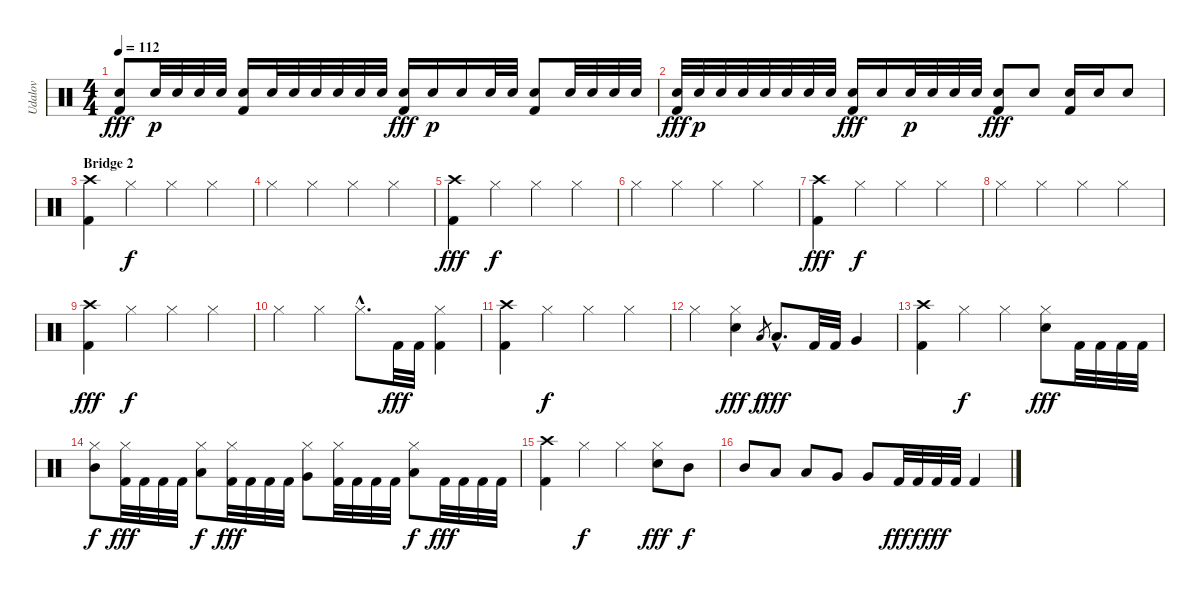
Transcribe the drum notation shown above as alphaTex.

\track ("Udalov" "Udalov") {instrument percussion}
\staff {score}
\articulation defaults
\ts (4 4)
\tempo 112
\clef neutral
\ks c
("Electric Snare (hit)" "Kick (hit) 2").8{dy fff} "Electric Snare (hit)".32{dy p} "Electric Snare (hit)".32 "Electric Snare (hit)".32 "Electric Snare (hit)".32 ("Electric Snare (hit)" "Kick (hit) 2").16 "Electric Snare (hit)".32 "Electric Snare (hit)".32 "Electric Snare (hit)".32 "Electric Snare (hit)".32 "Electric Snare (hit)".32 "Electric Snare (hit)".32 ("Electric Snare (hit)" "Kick (hit) 2").16{dy fff} "Electric Snare (hit)".16{dy p} "Electric Snare (hit)".16 "Electric Snare (hit)".32 "Electric Snare (hit)".32 ("Electric Snare (hit)" "Kick (hit) 2").8 "Electric Snare (hit)".32 "Electric Snare (hit)".32 "Electric Snare (hit)".32 "Electric Snare (hit)".32 |
("Electric Snare (hit)" "Kick (hit) 2").32{dy fff} "Electric Snare (hit)".32{dy p} "Electric Snare (hit)".32 "Electric Snare (hit)".32 "Electric Snare (hit)".32 "Electric Snare (hit)".32 "Electric Snare (hit)".32 "Electric Snare (hit)".32 ("Electric Snare (hit)" "Kick (hit) 2").16{dy fff} "Electric Snare (hit)".16 "Electric Snare (hit)".32{dy p} "Electric Snare (hit)".32 "Electric Snare (hit)".32 "Electric Snare (hit)".32 ("Electric Snare (hit)" "Kick (hit) 2").8{dy fff} "Electric Snare (hit)".8 ("Electric Snare (hit)" "Kick (hit) 2").16 "Electric Snare (hit)".16 "Electric Snare (hit)".8 |
\section ("" "Bridge 2")
("Crash high (hit)" "Kick (hit) 2").4 "Hi-Hat (closed)".4{dy f} "Hi-Hat (closed)".4 "Hi-Hat (closed)".4 |
"Hi-Hat (closed)".4 "Hi-Hat (closed)".4 "Hi-Hat (closed)".4 "Hi-Hat (closed)".4 |
("Crash high (hit)" "Kick (hit) 2").4{dy fff} "Hi-Hat (closed)".4{dy f} "Hi-Hat (closed)".4 "Hi-Hat (closed)".4 |
"Hi-Hat (closed)".4 "Hi-Hat (closed)".4 "Hi-Hat (closed)".4 "Hi-Hat (closed)".4 |
("Crash high (hit)" "Kick (hit) 2").4{dy fff} "Hi-Hat (closed)".4{dy f} "Hi-Hat (closed)".4 "Hi-Hat (closed)".4 |
"Hi-Hat (closed)".4 "Hi-Hat (closed)".4 "Hi-Hat (closed)".4 "Hi-Hat (closed)".4 |
("Crash high (hit)" "Kick (hit) 2").4{dy fff} "Hi-Hat (closed)".4{dy f} "Hi-Hat (closed)".4 "Hi-Hat (closed)".4 |
"Hi-Hat (closed)".4 "Hi-Hat (closed)".4 "Hi-Hat (closed)"{hac}.8{d} "Kick (hit) 2".32{dy fff} "Kick (hit) 2".32 ("Hi-Hat (closed)" "Kick (hit) 2").4 |
("Crash high (hit)" "Kick (hit) 2").4 "Hi-Hat (closed)".4{dy f} "Hi-Hat (closed)".4 "Hi-Hat (closed)".4 |
"Hi-Hat (closed)".4 ("Hi-Hat (closed)" "Electric Snare (hit)").4{dy fff} "Low Tom (hit)".8{gr dy f} "Low Tom (hit)"{hac}.8{d dy fff} "Kick (hit) 2".32 "Kick (hit) 2".32 "Very Low Tom (hit)".4 |
("Crash high (hit)" "Kick (hit) 2").4 "Hi-Hat (closed)".4{dy f} "Hi-Hat (closed)".4 ("Hi-Hat (closed)" "Electric Snare (hit)").8{dy fff} "Kick (hit) 2".32 "Kick (hit) 2".32 "Kick (hit) 2".32 "Kick (hit) 2".32 |
("Hi-Hat (closed)" "Mid Tom (hit)").8{dy f} ("Hi-Hat (closed)" "Kick (hit) 2").32{dy fff} "Kick (hit) 2".32 "Kick (hit) 2".32 "Kick (hit) 2".32 ("Hi-Hat (closed)" "Low Tom (hit)").8{dy f} ("Hi-Hat (closed)" "Kick (hit) 2").32{dy fff} "Kick (hit) 2".32 "Kick (hit) 2".32 "Kick (hit) 2".32 ("Hi-Hat (closed)" "Very Low Tom (hit)").8 ("Hi-Hat (closed)" "Kick (hit) 2").32 "Kick (hit) 2".32 "Kick (hit) 2".32 "Kick (hit) 2".32 ("Hi-Hat (closed)" "Low Floor Tom (hit)").8{dy f} "Kick (hit) 2".32{dy fff} "Kick (hit) 2".32 "Kick (hit) 2".32 "Kick (hit) 2".32 |
("Crash high (hit)" "Kick (hit) 2").4 "Hi-Hat (closed)".4{dy f} "Hi-Hat (closed)".4 ("Hi-Hat (closed)" "Electric Snare (hit)").8{dy fff} "Mid Tom (hit)".8{dy f} |
"Mid Tom (hit)".8 "Low Tom (hit)".8 "Low Tom (hit)".8 "Very Low Tom (hit)".8 "Very Low Tom (hit)".8 "Kick (hit) 2".32{dy fff} "Kick (hit) 2".32{dy f} "Kick (hit) 2".32{dy fff} "Kick (hit) 2".32 "Kick (hit) 2".4
